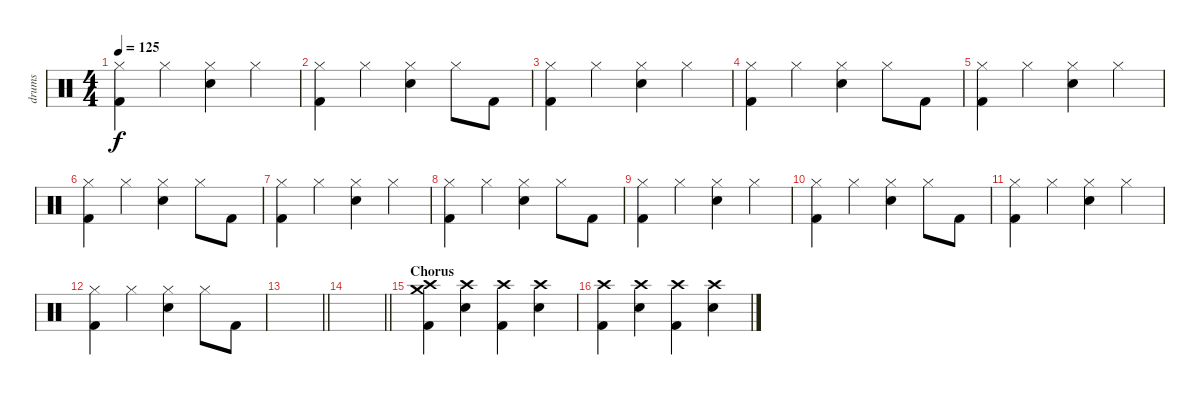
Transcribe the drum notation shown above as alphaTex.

\track ("drums" "drums") {instrument percussion}
\staff {score}
\articulation defaults
\ts (4 4)
\tempo 125
\clef neutral
\ks c
("Hi-Hat (closed)" "Kick (hit) 2").4{dy f} "Hi-Hat (closed)".4 ("Hi-Hat (closed)" "Snare (hit) 2").4 "Hi-Hat (closed)".4 |
("Hi-Hat (closed)" "Kick (hit) 2").4 "Hi-Hat (closed)".4 ("Hi-Hat (closed)" "Snare (hit) 2").4 "Hi-Hat (closed)".8 "Kick (hit) 2".8 |
("Hi-Hat (closed)" "Kick (hit) 2").4 "Hi-Hat (closed)".4 ("Hi-Hat (closed)" "Snare (hit) 2").4 "Hi-Hat (closed)".4 |
("Hi-Hat (closed)" "Kick (hit) 2").4 "Hi-Hat (closed)".4 ("Hi-Hat (closed)" "Snare (hit) 2").4 "Hi-Hat (closed)".8 "Kick (hit) 2".8 |
("Hi-Hat (closed)" "Kick (hit) 2").4 "Hi-Hat (closed)".4 ("Hi-Hat (closed)" "Snare (hit) 2").4 "Hi-Hat (closed)".4 |
("Hi-Hat (closed)" "Kick (hit) 2").4 "Hi-Hat (closed)".4 ("Hi-Hat (closed)" "Snare (hit) 2").4 "Hi-Hat (closed)".8 "Kick (hit) 2".8 |
("Hi-Hat (closed)" "Kick (hit) 2").4 "Hi-Hat (closed)".4 ("Hi-Hat (closed)" "Snare (hit) 2").4 "Hi-Hat (closed)".4 |
("Hi-Hat (closed)" "Kick (hit) 2").4 "Hi-Hat (closed)".4 ("Hi-Hat (closed)" "Snare (hit) 2").4 "Hi-Hat (closed)".8 "Kick (hit) 2".8 |
("Hi-Hat (closed)" "Kick (hit) 2").4 "Hi-Hat (closed)".4 ("Hi-Hat (closed)" "Snare (hit) 2").4 "Hi-Hat (closed)".4 |
("Hi-Hat (closed)" "Kick (hit) 2").4 "Hi-Hat (closed)".4 ("Hi-Hat (closed)" "Snare (hit) 2").4 "Hi-Hat (closed)".8 "Kick (hit) 2".8 |
("Hi-Hat (closed)" "Kick (hit) 2").4 "Hi-Hat (closed)".4 ("Hi-Hat (closed)" "Snare (hit) 2").4 "Hi-Hat (closed)".4 |
("Hi-Hat (closed)" "Kick (hit) 2").4 "Hi-Hat (closed)".4 ("Hi-Hat (closed)" "Snare (hit) 2").4 "Hi-Hat (closed)".8 "Kick (hit) 2".8 |
\barLineRight lightlight
|
\barLineRight lightlight
|
\section ("" "Chorus")
("Crash high (hit)" "Crash medium (hit)" "Kick (hit) 2").4 ("Crash high (hit)" "Snare (hit) 2").4 ("Crash high (hit)" "Kick (hit) 2").4 ("Crash high (hit)" "Snare (hit) 2").4 |
("Crash high (hit)" "Kick (hit) 2").4 ("Crash high (hit)" "Snare (hit) 2").4 ("Crash high (hit)" "Kick (hit) 2").4 ("Crash high (hit)" "Snare (hit) 2").4
